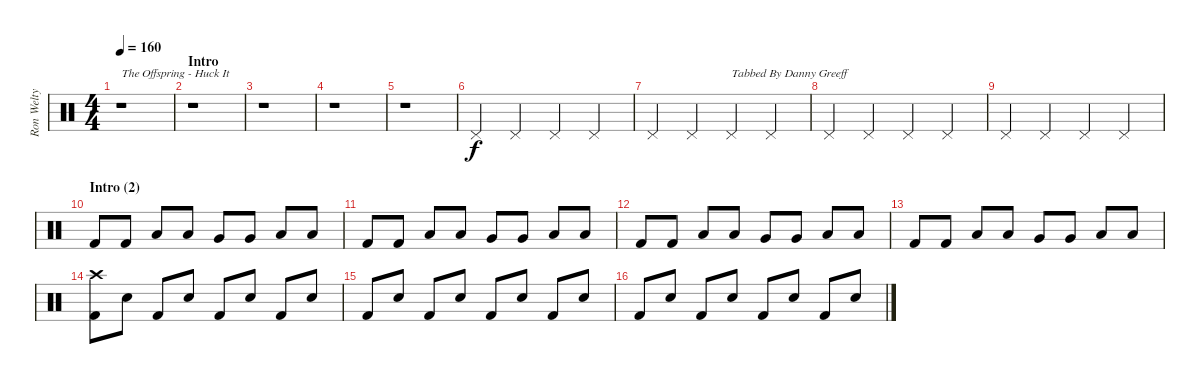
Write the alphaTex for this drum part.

\track ("Ron Welty" "Ron Welty") {instrument percussion}
\staff {score}
\articulation defaults
\ts (4 4)
\tempo 160
\clef neutral
\ks c
r.1{txt "The Offspring - Huck It" dy f} |
\section ("" "Intro")
r.1 |
r.1 |
r.1 |
r.1 |
"Pedal Hi-Hat (hit)".4 "Pedal Hi-Hat (hit)".4 "Pedal Hi-Hat (hit)".4 "Pedal Hi-Hat (hit)".4 |
"Pedal Hi-Hat (hit)".4 "Pedal Hi-Hat (hit)".4 "Pedal Hi-Hat (hit)".4{txt "Tabbed By Danny Greeff"} "Pedal Hi-Hat (hit)".4 |
"Pedal Hi-Hat (hit)".4 "Pedal Hi-Hat (hit)".4 "Pedal Hi-Hat (hit)".4 "Pedal Hi-Hat (hit)".4 |
"Pedal Hi-Hat (hit)".4 "Pedal Hi-Hat (hit)".4 "Pedal Hi-Hat (hit)".4 "Pedal Hi-Hat (hit)".4 |
\section ("" "Intro (2)")
"Kick (hit) 2".8 "Kick (hit) 2".8 "Low Floor Tom (hit)".8 "Low Floor Tom (hit)".8 "Very Low Tom (hit)".8 "Very Low Tom (hit)".8 "Low Floor Tom (hit)".8 "Low Floor Tom (hit)".8 |
"Kick (hit) 2".8 "Kick (hit) 2".8 "Low Floor Tom (hit)".8 "Low Floor Tom (hit)".8 "Very Low Tom (hit)".8 "Very Low Tom (hit)".8 "Low Floor Tom (hit)".8 "Low Floor Tom (hit)".8 |
"Kick (hit) 2".8 "Kick (hit) 2".8 "Low Floor Tom (hit)".8 "Low Floor Tom (hit)".8 "Very Low Tom (hit)".8 "Very Low Tom (hit)".8 "Low Floor Tom (hit)".8 "Low Floor Tom (hit)".8 |
"Kick (hit) 2".8 "Kick (hit) 2".8 "Low Floor Tom (hit)".8 "Low Floor Tom (hit)".8 "Very Low Tom (hit)".8 "Very Low Tom (hit)".8 "Low Floor Tom (hit)".8 "Low Floor Tom (hit)".8 |
("Crash high (hit)" "Kick (hit) 2").8 "Snare (hit) 2".8 "Kick (hit) 2".8 "Snare (hit) 2".8 "Kick (hit) 2".8 "Snare (hit) 2".8 "Kick (hit) 2".8 "Snare (hit) 2".8 |
"Kick (hit) 2".8 "Snare (hit) 2".8 "Kick (hit) 2".8 "Snare (hit) 2".8 "Kick (hit) 2".8 "Snare (hit) 2".8 "Kick (hit) 2".8 "Snare (hit) 2".8 |
"Kick (hit) 2".8 "Snare (hit) 2".8 "Kick (hit) 2".8 "Snare (hit) 2".8 "Kick (hit) 2".8 "Snare (hit) 2".8 "Kick (hit) 2".8 "Snare (hit) 2".8
